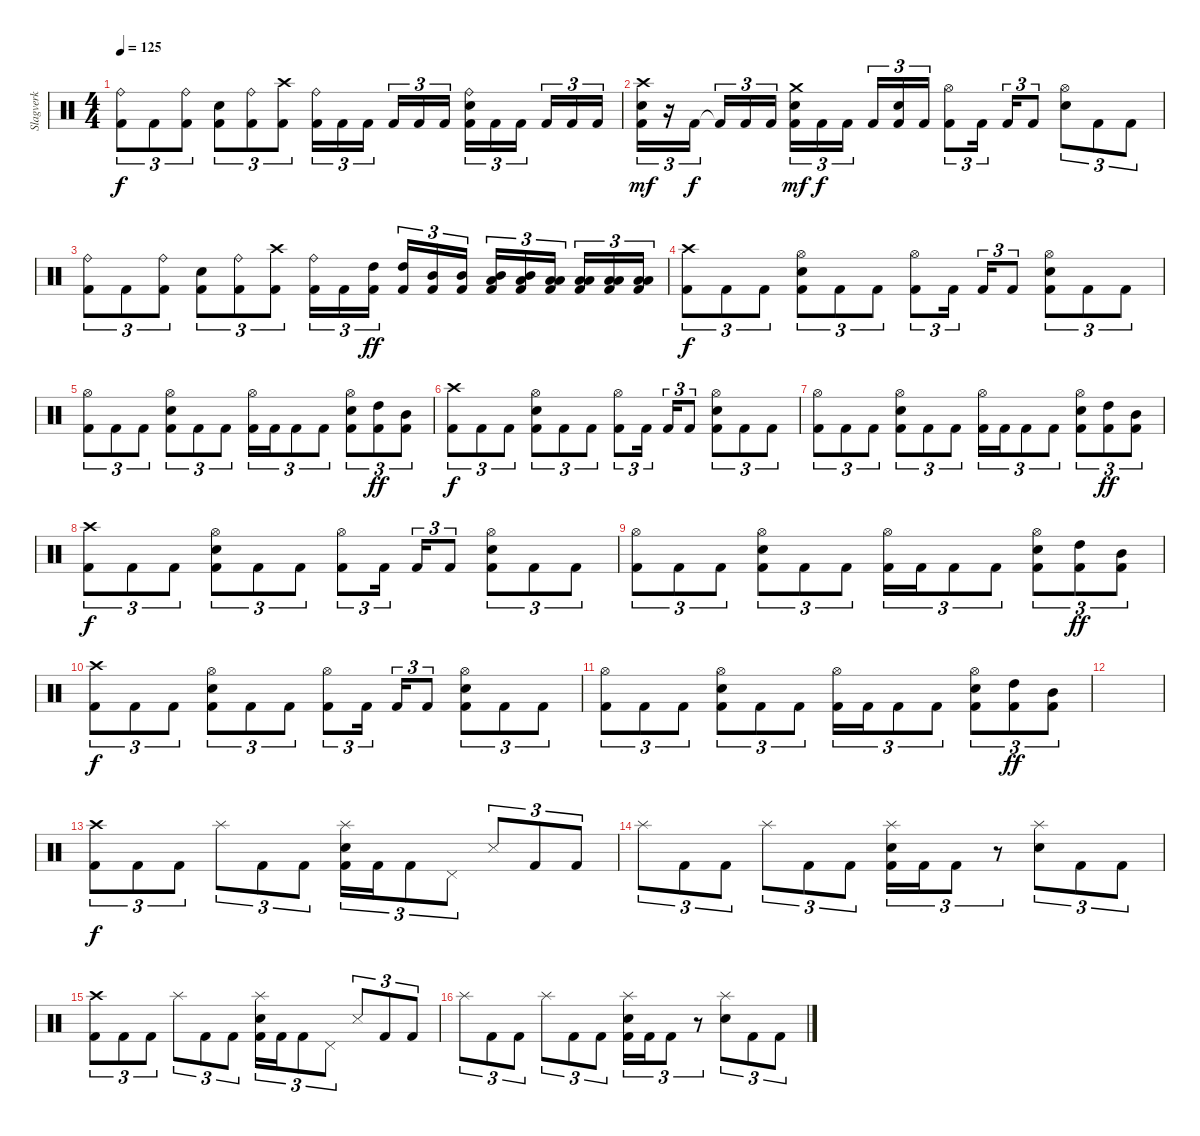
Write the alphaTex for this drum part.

\track ("Slagverk" "Slagverk") {instrument percussion}
\staff {score}
\articulation defaults
\ts (4 4)
\tempo 125
\clef neutral
\ks c
("Ride (bell)" "Kick (hit) 2").8{tu (3 2) dy f} "Kick (hit) 2".8{tu (3 2)} ("Ride (bell)" "Kick (hit) 2").8{tu (3 2)} ("Electric Snare (hit)" "Kick (hit) 2").8{tu (3 2)} ("Ride (bell)" "Kick (hit) 2").8{tu (3 2)} ("Crash high (hit)" "Kick (hit) 2").8{tu (3 2)} ("Ride (bell)" "Kick (hit) 2").16{tu (3 2)} "Kick (hit) 2".16{tu (3 2)} "Kick (hit) 2".16{tu (3 2) beam splitsecondary} "Kick (hit) 2".16{tu (3 2)} "Kick (hit) 2".16{tu (3 2)} "Kick (hit) 2".16{tu (3 2)} ("Ride (bell)" "Electric Snare (hit)" "Kick (hit) 2").16{tu (3 2)} "Kick (hit) 2".16{tu (3 2)} "Kick (hit) 2".16{tu (3 2) beam splitsecondary} "Kick (hit) 2".16{tu (3 2)} "Kick (hit) 2".16{tu (3 2)} "Kick (hit) 2".16{tu (3 2)} |
("Crash high (hit)" "Electric Snare (hit)" "Kick (hit) 2").16{tu (3 2) dy mf} r.16{tu (3 2)} "Kick (hit) 2".16{tu (3 2) dy f beam splitsecondary} "Kick (hit) 2"{t}.16{tu (3 2)} "Kick (hit) 2".16{tu (3 2)} "Kick (hit) 2".16{tu (3 2)} ("Crash medium (hit)" "Electric Snare (hit)" "Kick (hit) 2").16{tu (3 2) dy mf} "Kick (hit) 2".16{tu (3 2) dy f} "Kick (hit) 2".16{tu (3 2) beam splitsecondary} "Kick (hit) 2".16{tu (3 2)} ("Electric Snare (hit)" "Kick (hit) 2").16{tu (3 2)} "Kick (hit) 2".16{tu (3 2)} ("Hi-Hat (open)" "Kick (hit) 2").8{tu (3 2)} "Kick (hit) 2".16{tu (3 2) beam splitsecondary} "Kick (hit) 2".16{tu (3 2)} "Kick (hit) 2".8{tu (3 2)} ("Hi-Hat (open)" "Electric Snare (hit)").8{tu (3 2)} "Kick (hit) 2".8{tu (3 2)} "Kick (hit) 2".8{tu (3 2)} |
("Ride (bell)" "Kick (hit) 2").8{tu (3 2)} "Kick (hit) 2".8{tu (3 2)} ("Ride (bell)" "Kick (hit) 2").8{tu (3 2)} ("Electric Snare (hit)" "Kick (hit) 2").8{tu (3 2)} ("Ride (bell)" "Kick (hit) 2").8{tu (3 2)} ("Crash high (hit)" "Kick (hit) 2").8{tu (3 2)} ("Ride (bell)" "Kick (hit) 2").16{tu (3 2)} "Kick (hit) 2".16{tu (3 2)} ("High Tom (hit)" "Kick (hit) 2").16{tu (3 2) dy ff beam splitsecondary} ("High Tom (hit)" "Kick (hit) 2").16{tu (3 2)} ("Mid Tom (hit)" "Kick (hit) 2").16{tu (3 2)} ("Mid Tom (hit)" "Kick (hit) 2").16{tu (3 2)} ("Mid Tom (hit)" "Low Tom (hit)" "Kick (hit) 2").16{tu (3 2)} ("Mid Tom (hit)" "Low Tom (hit)" "Kick (hit) 2").16{tu (3 2)} ("Low Tom (hit)" "Low Tom (hit)" "Kick (hit) 2").16{tu (3 2) beam splitsecondary} ("Low Tom (hit)" "Low Tom (hit)" "Kick (hit) 2").16{tu (3 2)} ("Low Tom (hit)" "Low Tom (hit)" "Kick (hit) 2").16{tu (3 2)} ("Low Tom (hit)" "Low Tom (hit)" "Kick (hit) 2").16{tu (3 2)} |
("Crash high (hit)" "Kick (hit) 2").8{tu (3 2) dy f} "Kick (hit) 2".8{tu (3 2)} "Kick (hit) 2".8{tu (3 2)} ("Hi-Hat (open)" "Electric Snare (hit)" "Kick (hit) 2").8{tu (3 2)} "Kick (hit) 2".8{tu (3 2)} "Kick (hit) 2".8{tu (3 2)} ("Hi-Hat (open)" "Kick (hit) 2").8{tu (3 2)} "Kick (hit) 2".16{tu (3 2) beam splitsecondary} "Kick (hit) 2".16{tu (3 2)} "Kick (hit) 2".8{tu (3 2)} ("Hi-Hat (open)" "Electric Snare (hit)" "Kick (hit) 2").8{tu (3 2)} "Kick (hit) 2".8{tu (3 2)} "Kick (hit) 2".8{tu (3 2)} |
("Hi-Hat (open)" "Kick (hit) 2").8{tu (3 2)} "Kick (hit) 2".8{tu (3 2)} "Kick (hit) 2".8{tu (3 2)} ("Hi-Hat (open)" "Electric Snare (hit)" "Kick (hit) 2").8{tu (3 2)} "Kick (hit) 2".8{tu (3 2)} "Kick (hit) 2".8{tu (3 2)} ("Hi-Hat (open)" "Kick (hit) 2").16{tu (3 2)} "Kick (hit) 2".16{tu (3 2)} "Kick (hit) 2".8{tu (3 2)} "Kick (hit) 2".8{tu (3 2)} ("Hi-Hat (open)" "Electric Snare (hit)" "Kick (hit) 2").8{tu (3 2)} ("High Tom (hit)" "Kick (hit) 2").8{tu (3 2) dy ff} ("Mid Tom (hit)" "Kick (hit) 2").8{tu (3 2)} |
("Crash high (hit)" "Kick (hit) 2").8{tu (3 2) dy f} "Kick (hit) 2".8{tu (3 2)} "Kick (hit) 2".8{tu (3 2)} ("Hi-Hat (open)" "Electric Snare (hit)" "Kick (hit) 2").8{tu (3 2)} "Kick (hit) 2".8{tu (3 2)} "Kick (hit) 2".8{tu (3 2)} ("Hi-Hat (open)" "Kick (hit) 2").8{tu (3 2)} "Kick (hit) 2".16{tu (3 2) beam splitsecondary} "Kick (hit) 2".16{tu (3 2)} "Kick (hit) 2".8{tu (3 2)} ("Hi-Hat (open)" "Electric Snare (hit)" "Kick (hit) 2").8{tu (3 2)} "Kick (hit) 2".8{tu (3 2)} "Kick (hit) 2".8{tu (3 2)} |
("Hi-Hat (open)" "Kick (hit) 2").8{tu (3 2)} "Kick (hit) 2".8{tu (3 2)} "Kick (hit) 2".8{tu (3 2)} ("Hi-Hat (open)" "Electric Snare (hit)" "Kick (hit) 2").8{tu (3 2)} "Kick (hit) 2".8{tu (3 2)} "Kick (hit) 2".8{tu (3 2)} ("Hi-Hat (open)" "Kick (hit) 2").16{tu (3 2)} "Kick (hit) 2".16{tu (3 2)} "Kick (hit) 2".8{tu (3 2)} "Kick (hit) 2".8{tu (3 2)} ("Hi-Hat (open)" "Electric Snare (hit)" "Kick (hit) 2").8{tu (3 2)} ("High Tom (hit)" "Kick (hit) 2").8{tu (3 2) dy ff} ("Mid Tom (hit)" "Kick (hit) 2").8{tu (3 2)} |
("Crash high (hit)" "Kick (hit) 2").8{tu (3 2) dy f} "Kick (hit) 2".8{tu (3 2)} "Kick (hit) 2".8{tu (3 2)} ("Hi-Hat (open)" "Electric Snare (hit)" "Kick (hit) 2").8{tu (3 2)} "Kick (hit) 2".8{tu (3 2)} "Kick (hit) 2".8{tu (3 2)} ("Hi-Hat (open)" "Kick (hit) 2").8{tu (3 2)} "Kick (hit) 2".16{tu (3 2) beam splitsecondary} "Kick (hit) 2".16{tu (3 2)} "Kick (hit) 2".8{tu (3 2)} ("Hi-Hat (open)" "Electric Snare (hit)" "Kick (hit) 2").8{tu (3 2)} "Kick (hit) 2".8{tu (3 2)} "Kick (hit) 2".8{tu (3 2)} |
("Hi-Hat (open)" "Kick (hit) 2").8{tu (3 2)} "Kick (hit) 2".8{tu (3 2)} "Kick (hit) 2".8{tu (3 2)} ("Hi-Hat (open)" "Electric Snare (hit)" "Kick (hit) 2").8{tu (3 2)} "Kick (hit) 2".8{tu (3 2)} "Kick (hit) 2".8{tu (3 2)} ("Hi-Hat (open)" "Kick (hit) 2").16{tu (3 2)} "Kick (hit) 2".16{tu (3 2)} "Kick (hit) 2".8{tu (3 2)} "Kick (hit) 2".8{tu (3 2)} ("Hi-Hat (open)" "Electric Snare (hit)" "Kick (hit) 2").8{tu (3 2)} ("High Tom (hit)" "Kick (hit) 2").8{tu (3 2) dy ff} ("Mid Tom (hit)" "Kick (hit) 2").8{tu (3 2)} |
("Crash high (hit)" "Kick (hit) 2").8{tu (3 2) dy f} "Kick (hit) 2".8{tu (3 2)} "Kick (hit) 2".8{tu (3 2)} ("Hi-Hat (open)" "Electric Snare (hit)" "Kick (hit) 2").8{tu (3 2)} "Kick (hit) 2".8{tu (3 2)} "Kick (hit) 2".8{tu (3 2)} ("Hi-Hat (open)" "Kick (hit) 2").8{tu (3 2)} "Kick (hit) 2".16{tu (3 2) beam splitsecondary} "Kick (hit) 2".16{tu (3 2)} "Kick (hit) 2".8{tu (3 2)} ("Hi-Hat (open)" "Electric Snare (hit)" "Kick (hit) 2").8{tu (3 2)} "Kick (hit) 2".8{tu (3 2)} "Kick (hit) 2".8{tu (3 2)} |
("Hi-Hat (open)" "Kick (hit) 2").8{tu (3 2)} "Kick (hit) 2".8{tu (3 2)} "Kick (hit) 2".8{tu (3 2)} ("Hi-Hat (open)" "Electric Snare (hit)" "Kick (hit) 2").8{tu (3 2)} "Kick (hit) 2".8{tu (3 2)} "Kick (hit) 2".8{tu (3 2)} ("Hi-Hat (open)" "Kick (hit) 2").16{tu (3 2)} "Kick (hit) 2".16{tu (3 2)} "Kick (hit) 2".8{tu (3 2)} "Kick (hit) 2".8{tu (3 2)} ("Hi-Hat (open)" "Electric Snare (hit)" "Kick (hit) 2").8{tu (3 2)} ("High Tom (hit)" "Kick (hit) 2").8{tu (3 2) dy ff} ("Mid Tom (hit)" "Kick (hit) 2").8{tu (3 2)} |
|
("Crash high (hit)" "Kick (hit) 2").8{tu (3 2) dy f} "Kick (hit) 2".8{tu (3 2)} "Kick (hit) 2".8{tu (3 2)} "Splash (hit)".8{tu (3 2)} "Kick (hit) 2".8{tu (3 2)} "Kick (hit) 2".8{tu (3 2)} ("Electric Snare (hit)" "Splash (hit)" "Kick (hit) 2").16{tu (3 2)} "Kick (hit) 2".16{tu (3 2)} "Kick (hit) 2".8{tu (3 2)} "Pedal Hi-Hat (hit)".8{tu (3 2)} "Snare (side stick) 3".8{tu (3 2)} "Kick (hit) 2".8{tu (3 2)} "Kick (hit) 2".8{tu (3 2)} |
"Splash (hit)".8{tu (3 2)} "Kick (hit) 2".8{tu (3 2)} "Kick (hit) 2".8{tu (3 2)} "Splash (hit)".8{tu (3 2)} "Kick (hit) 2".8{tu (3 2)} "Kick (hit) 2".8{tu (3 2)} ("Electric Snare (hit)" "Splash (hit)" "Kick (hit) 2").16{tu (3 2)} "Kick (hit) 2".16{tu (3 2)} "Kick (hit) 2".8{tu (3 2)} r.8{tu (3 2)} ("Splash (hit)" "Electric Snare (hit)").8{tu (3 2)} "Kick (hit) 2".8{tu (3 2)} "Kick (hit) 2".8{tu (3 2)} |
("Crash high (hit)" "Kick (hit) 2").8{tu (3 2)} "Kick (hit) 2".8{tu (3 2)} "Kick (hit) 2".8{tu (3 2)} "Splash (hit)".8{tu (3 2)} "Kick (hit) 2".8{tu (3 2)} "Kick (hit) 2".8{tu (3 2)} ("Electric Snare (hit)" "Splash (hit)" "Kick (hit) 2").16{tu (3 2)} "Kick (hit) 2".16{tu (3 2)} "Kick (hit) 2".8{tu (3 2)} "Pedal Hi-Hat (hit)".8{tu (3 2)} "Snare (side stick) 3".8{tu (3 2)} "Kick (hit) 2".8{tu (3 2)} "Kick (hit) 2".8{tu (3 2)} |
"Splash (hit)".8{tu (3 2)} "Kick (hit) 2".8{tu (3 2)} "Kick (hit) 2".8{tu (3 2)} "Splash (hit)".8{tu (3 2)} "Kick (hit) 2".8{tu (3 2)} "Kick (hit) 2".8{tu (3 2)} ("Electric Snare (hit)" "Splash (hit)" "Kick (hit) 2").16{tu (3 2)} "Kick (hit) 2".16{tu (3 2)} "Kick (hit) 2".8{tu (3 2)} r.8{tu (3 2)} ("Splash (hit)" "Electric Snare (hit)").8{tu (3 2)} "Kick (hit) 2".8{tu (3 2)} "Kick (hit) 2".8{tu (3 2)}
